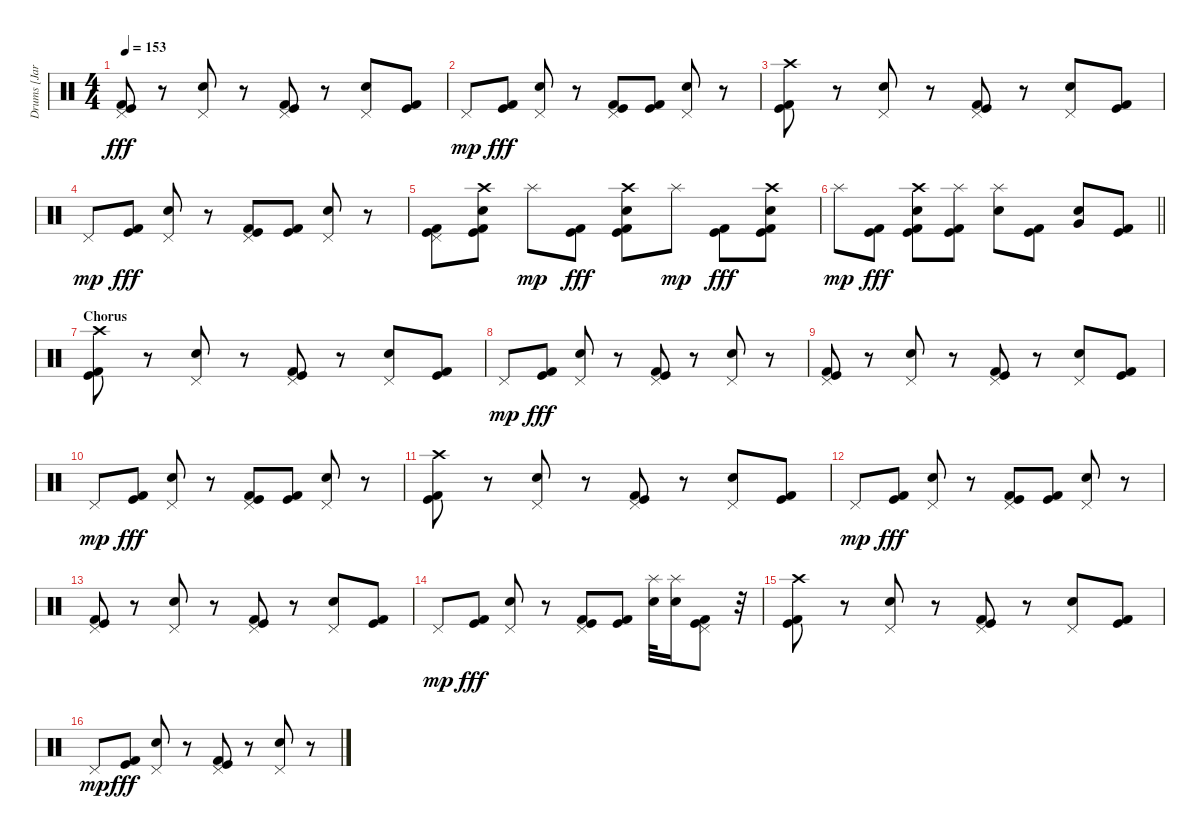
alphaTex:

\track ("Drums [Jari]" "Drums [Jar") {instrument percussion}
\staff {score}
\articulation defaults
\ts (4 4)
\tempo 153
\clef neutral
\ks c
("Kick (hit) 2" "Pedal Hi-Hat (hit)" "Kick (hit)").8{dy fff} r.8 ("Pedal Hi-Hat (hit)" "Electric Snare (hit)").8 r.8 ("Kick (hit) 2" "Pedal Hi-Hat (hit)" "Kick (hit)").8 r.8 ("Pedal Hi-Hat (hit)" "Electric Snare (hit)").8 ("Kick (hit) 2" "Kick (hit)").8 |
"Pedal Hi-Hat (hit)".8{dy mp} ("Kick (hit) 2" "Kick (hit)").8{dy fff} ("Pedal Hi-Hat (hit)" "Electric Snare (hit)").8 r.8 ("Kick (hit) 2" "Pedal Hi-Hat (hit)" "Kick (hit)").8 ("Kick (hit) 2" "Kick (hit)").8 ("Pedal Hi-Hat (hit)" "Electric Snare (hit)").8 r.8 |
("Kick (hit) 2" "Crash high (hit)" "Kick (hit)").8 r.8 ("Pedal Hi-Hat (hit)" "Electric Snare (hit)").8 r.8 ("Kick (hit) 2" "Pedal Hi-Hat (hit)" "Kick (hit)").8 r.8 ("Pedal Hi-Hat (hit)" "Electric Snare (hit)").8 ("Kick (hit) 2" "Kick (hit)").8 |
"Pedal Hi-Hat (hit)".8{dy mp} ("Kick (hit) 2" "Kick (hit)").8{dy fff} ("Pedal Hi-Hat (hit)" "Electric Snare (hit)").8 r.8 ("Kick (hit) 2" "Pedal Hi-Hat (hit)" "Kick (hit)").8 ("Kick (hit) 2" "Kick (hit)").8 ("Pedal Hi-Hat (hit)" "Electric Snare (hit)").8 r.8 |
("Kick (hit)" "Pedal Hi-Hat (hit)" "Kick (hit) 2").8 ("Kick (hit)" "Electric Snare (hit)" "Crash high (hit)" "Kick (hit) 2").8 "Splash (hit)".8{dy mp} ("Kick (hit)" "Kick (hit) 2").8{dy fff} ("Kick (hit)" "Electric Snare (hit)" "Crash high (hit)" "Kick (hit) 2").8 "Splash (hit)".8{dy mp} ("Kick (hit)" "Kick (hit) 2").8{dy fff} ("Kick (hit)" "Electric Snare (hit)" "Crash high (hit)" "Kick (hit) 2").8 |
\barLineRight lightlight "Splash (hit)".8{dy mp}
("Kick (hit)" "Kick (hit) 2").8{dy fff} ("Kick (hit)" "Electric Snare (hit)" "Crash high (hit)" "Kick (hit) 2").8 ("Kick (hit)" "Splash (hit)" "Kick (hit) 2").8 ("Splash (hit)" "Electric Snare (hit)").8 ("Kick (hit) 2" "Kick (hit)").8 ("Electric Snare (hit)" "Very Low Tom (hit)").8 ("Kick (hit)" "Kick (hit) 2").8 |
\section ("" "Chorus")
("Kick (hit) 2" "Crash high (hit)" "Kick (hit)").8 r.8 ("Pedal Hi-Hat (hit)" "Electric Snare (hit)").8 r.8 ("Kick (hit) 2" "Pedal Hi-Hat (hit)" "Kick (hit)").8 r.8 ("Pedal Hi-Hat (hit)" "Electric Snare (hit)").8 ("Kick (hit) 2" "Kick (hit)").8 |
"Pedal Hi-Hat (hit)".8{dy mp} ("Kick (hit) 2" "Kick (hit)").8{dy fff} ("Pedal Hi-Hat (hit)" "Electric Snare (hit)").8 r.8 ("Kick (hit) 2" "Pedal Hi-Hat (hit)" "Kick (hit)").8 r.8 ("Pedal Hi-Hat (hit)" "Electric Snare (hit)").8 r.8 |
("Kick (hit) 2" "Pedal Hi-Hat (hit)" "Kick (hit)").8 r.8 ("Pedal Hi-Hat (hit)" "Electric Snare (hit)").8 r.8 ("Kick (hit) 2" "Pedal Hi-Hat (hit)" "Kick (hit)").8 r.8 ("Pedal Hi-Hat (hit)" "Electric Snare (hit)").8 ("Kick (hit) 2" "Kick (hit)").8 |
"Pedal Hi-Hat (hit)".8{dy mp} ("Kick (hit) 2" "Kick (hit)").8{dy fff} ("Pedal Hi-Hat (hit)" "Electric Snare (hit)").8 r.8 ("Kick (hit) 2" "Pedal Hi-Hat (hit)" "Kick (hit)").8 ("Kick (hit) 2" "Kick (hit)").8 ("Pedal Hi-Hat (hit)" "Electric Snare (hit)").8 r.8 |
("Kick (hit) 2" "Crash high (hit)" "Kick (hit)").8 r.8 ("Pedal Hi-Hat (hit)" "Electric Snare (hit)").8 r.8 ("Kick (hit) 2" "Pedal Hi-Hat (hit)" "Kick (hit)").8 r.8 ("Pedal Hi-Hat (hit)" "Electric Snare (hit)").8 ("Kick (hit) 2" "Kick (hit)").8 |
"Pedal Hi-Hat (hit)".8{dy mp} ("Kick (hit) 2" "Kick (hit)").8{dy fff} ("Pedal Hi-Hat (hit)" "Electric Snare (hit)").8 r.8 ("Kick (hit) 2" "Pedal Hi-Hat (hit)" "Kick (hit)").8 ("Kick (hit) 2" "Kick (hit)").8 ("Pedal Hi-Hat (hit)" "Electric Snare (hit)").8 r.8 |
("Kick (hit) 2" "Pedal Hi-Hat (hit)" "Kick (hit)").8 r.8 ("Pedal Hi-Hat (hit)" "Electric Snare (hit)").8 r.8 ("Kick (hit) 2" "Pedal Hi-Hat (hit)" "Kick (hit)").8 r.8 ("Pedal Hi-Hat (hit)" "Electric Snare (hit)").8 ("Kick (hit) 2" "Kick (hit)").8 |
"Pedal Hi-Hat (hit)".8{dy mp} ("Kick (hit) 2" "Kick (hit)").8{dy fff} ("Pedal Hi-Hat (hit)" "Electric Snare (hit)").8 r.8 ("Kick (hit) 2" "Pedal Hi-Hat (hit)" "Kick (hit)").8 ("Kick (hit) 2" "Kick (hit)").8 ("Splash (hit)" "Electric Snare (hit)").32 ("Splash (hit)" "Electric Snare (hit)").16 ("Kick (hit) 2" "Pedal Hi-Hat (hit)" "Kick (hit)").8 r.32 |
("Kick (hit) 2" "Crash high (hit)" "Kick (hit)").8 r.8 ("Pedal Hi-Hat (hit)" "Electric Snare (hit)").8 r.8 ("Kick (hit) 2" "Pedal Hi-Hat (hit)" "Kick (hit)").8 r.8 ("Pedal Hi-Hat (hit)" "Electric Snare (hit)").8 ("Kick (hit) 2" "Kick (hit)").8 |
"Pedal Hi-Hat (hit)".8{dy mp} ("Kick (hit) 2" "Kick (hit)").8{dy fff} ("Pedal Hi-Hat (hit)" "Electric Snare (hit)").8 r.8 ("Kick (hit) 2" "Pedal Hi-Hat (hit)" "Kick (hit)").8 r.8 ("Pedal Hi-Hat (hit)" "Electric Snare (hit)").8 r.8
